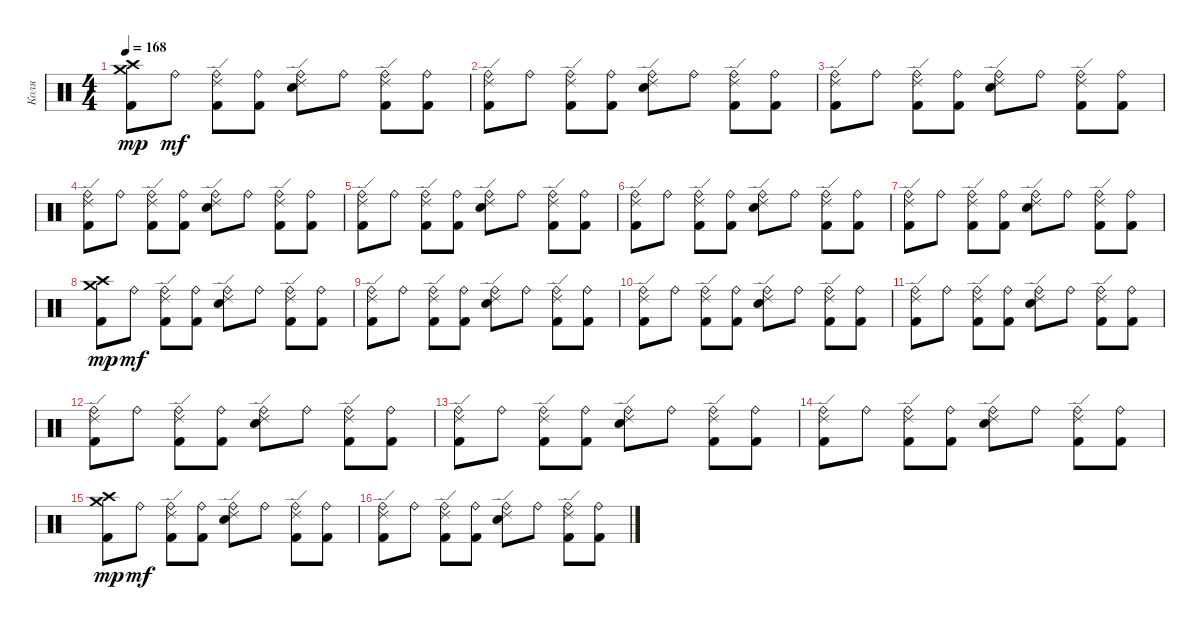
\track ("Коля" "Коля") {instrument percussion}
\staff {score}
\articulation defaults
\ts (4 4)
\tempo 168
\clef neutral
\ks c
("Kick (hit) 2" "Crash medium (hit)" "Crash high (hit)").8{dy mp} "Ride (bell)".8{dy mf} ("Kick (hit) 2" "Ride (bell)" "Ride (edge) 2").8 ("Kick (hit) 2" "Ride (bell)").8 ("Snare (hit) 2" "Ride (bell)" "Ride (edge) 2").8 "Ride (bell)".8 ("Kick (hit) 2" "Ride (bell)" "Ride (edge) 2").8 ("Kick (hit) 2" "Ride (bell)").8 |
("Kick (hit) 2" "Ride (bell)" "Ride (edge) 2").8 "Ride (bell)".8 ("Kick (hit) 2" "Ride (bell)" "Ride (edge) 2").8 ("Kick (hit) 2" "Ride (bell)").8 ("Snare (hit) 2" "Ride (bell)" "Ride (edge) 2").8 "Ride (bell)".8 ("Kick (hit) 2" "Ride (bell)" "Ride (edge) 2").8 ("Kick (hit) 2" "Ride (bell)").8 |
("Kick (hit) 2" "Ride (bell)" "Ride (edge) 2").8 "Ride (bell)".8 ("Kick (hit) 2" "Ride (bell)" "Ride (edge) 2").8 ("Kick (hit) 2" "Ride (bell)").8 ("Snare (hit) 2" "Ride (bell)" "Ride (edge) 2").8 "Ride (bell)".8 ("Kick (hit) 2" "Ride (bell)" "Ride (edge) 2").8 ("Kick (hit) 2" "Ride (bell)").8 |
("Kick (hit) 2" "Ride (bell)" "Ride (edge) 2").8 "Ride (bell)".8 ("Kick (hit) 2" "Ride (bell)" "Ride (edge) 2").8 ("Kick (hit) 2" "Ride (bell)").8 ("Snare (hit) 2" "Ride (bell)" "Ride (edge) 2").8 "Ride (bell)".8 ("Kick (hit) 2" "Ride (bell)" "Ride (edge) 2").8 ("Kick (hit) 2" "Ride (bell)").8 |
("Kick (hit) 2" "Ride (bell)" "Ride (edge) 2").8 "Ride (bell)".8 ("Kick (hit) 2" "Ride (bell)" "Ride (edge) 2").8 ("Kick (hit) 2" "Ride (bell)").8 ("Snare (hit) 2" "Ride (bell)" "Ride (edge) 2").8 "Ride (bell)".8 ("Kick (hit) 2" "Ride (bell)" "Ride (edge) 2").8 ("Kick (hit) 2" "Ride (bell)").8 |
("Kick (hit) 2" "Ride (bell)" "Ride (edge) 2").8 "Ride (bell)".8 ("Kick (hit) 2" "Ride (bell)" "Ride (edge) 2").8 ("Kick (hit) 2" "Ride (bell)").8 ("Snare (hit) 2" "Ride (bell)" "Ride (edge) 2").8 "Ride (bell)".8 ("Kick (hit) 2" "Ride (bell)" "Ride (edge) 2").8 ("Kick (hit) 2" "Ride (bell)").8 |
("Kick (hit) 2" "Ride (bell)" "Ride (edge) 2").8 "Ride (bell)".8 ("Kick (hit) 2" "Ride (bell)" "Ride (edge) 2").8 ("Kick (hit) 2" "Ride (bell)").8 ("Snare (hit) 2" "Ride (bell)" "Ride (edge) 2").8 "Ride (bell)".8 ("Kick (hit) 2" "Ride (bell)" "Ride (edge) 2").8 ("Kick (hit) 2" "Ride (bell)").8 |
("Kick (hit) 2" "Crash medium (hit)" "Crash high (hit)").8{dy mp} "Ride (bell)".8{dy mf} ("Kick (hit) 2" "Ride (bell)" "Ride (edge) 2").8 ("Kick (hit) 2" "Ride (bell)").8 ("Snare (hit) 2" "Ride (bell)" "Ride (edge) 2").8 "Ride (bell)".8 ("Kick (hit) 2" "Ride (bell)" "Ride (edge) 2").8 ("Kick (hit) 2" "Ride (bell)").8 |
("Kick (hit) 2" "Ride (bell)" "Ride (edge) 2").8 "Ride (bell)".8 ("Kick (hit) 2" "Ride (bell)" "Ride (edge) 2").8 ("Kick (hit) 2" "Ride (bell)").8 ("Snare (hit) 2" "Ride (bell)" "Ride (edge) 2").8 "Ride (bell)".8 ("Kick (hit) 2" "Ride (bell)" "Ride (edge) 2").8 ("Kick (hit) 2" "Ride (bell)").8 |
("Kick (hit) 2" "Ride (bell)" "Ride (edge) 2").8 "Ride (bell)".8 ("Kick (hit) 2" "Ride (bell)" "Ride (edge) 2").8 ("Kick (hit) 2" "Ride (bell)").8 ("Snare (hit) 2" "Ride (bell)" "Ride (edge) 2").8 "Ride (bell)".8 ("Kick (hit) 2" "Ride (bell)" "Ride (edge) 2").8 ("Kick (hit) 2" "Ride (bell)").8 |
("Kick (hit) 2" "Ride (bell)" "Ride (edge) 2").8 "Ride (bell)".8 ("Kick (hit) 2" "Ride (bell)" "Ride (edge) 2").8 ("Kick (hit) 2" "Ride (bell)").8 ("Snare (hit) 2" "Ride (bell)" "Ride (edge) 2").8 "Ride (bell)".8 ("Kick (hit) 2" "Ride (bell)" "Ride (edge) 2").8 ("Kick (hit) 2" "Ride (bell)").8 |
("Kick (hit) 2" "Ride (bell)" "Ride (edge) 2").8 "Ride (bell)".8 ("Kick (hit) 2" "Ride (bell)" "Ride (edge) 2").8 ("Kick (hit) 2" "Ride (bell)").8 ("Snare (hit) 2" "Ride (bell)" "Ride (edge) 2").8 "Ride (bell)".8 ("Kick (hit) 2" "Ride (bell)" "Ride (edge) 2").8 ("Kick (hit) 2" "Ride (bell)").8 |
("Kick (hit) 2" "Ride (bell)" "Ride (edge) 2").8 "Ride (bell)".8 ("Kick (hit) 2" "Ride (bell)" "Ride (edge) 2").8 ("Kick (hit) 2" "Ride (bell)").8 ("Snare (hit) 2" "Ride (bell)" "Ride (edge) 2").8 "Ride (bell)".8 ("Kick (hit) 2" "Ride (bell)" "Ride (edge) 2").8 ("Kick (hit) 2" "Ride (bell)").8 |
("Kick (hit) 2" "Ride (bell)" "Ride (edge) 2").8 "Ride (bell)".8 ("Kick (hit) 2" "Ride (bell)" "Ride (edge) 2").8 ("Kick (hit) 2" "Ride (bell)").8 ("Snare (hit) 2" "Ride (bell)" "Ride (edge) 2").8 "Ride (bell)".8 ("Kick (hit) 2" "Ride (bell)" "Ride (edge) 2").8 ("Kick (hit) 2" "Ride (bell)").8 |
("Kick (hit) 2" "Crash medium (hit)" "Crash high (hit)").8{dy mp} "Ride (bell)".8{dy mf} ("Kick (hit) 2" "Ride (bell)" "Ride (edge) 2").8 ("Kick (hit) 2" "Ride (bell)").8 ("Snare (hit) 2" "Ride (bell)" "Ride (edge) 2").8 "Ride (bell)".8 ("Kick (hit) 2" "Ride (bell)" "Ride (edge) 2").8 ("Kick (hit) 2" "Ride (bell)").8 |
("Kick (hit) 2" "Ride (bell)" "Ride (edge) 2").8 "Ride (bell)".8 ("Kick (hit) 2" "Ride (bell)" "Ride (edge) 2").8 ("Kick (hit) 2" "Ride (bell)").8 ("Snare (hit) 2" "Ride (bell)" "Ride (edge) 2").8 "Ride (bell)".8 ("Kick (hit) 2" "Ride (bell)" "Ride (edge) 2").8 ("Kick (hit) 2" "Ride (bell)").8
